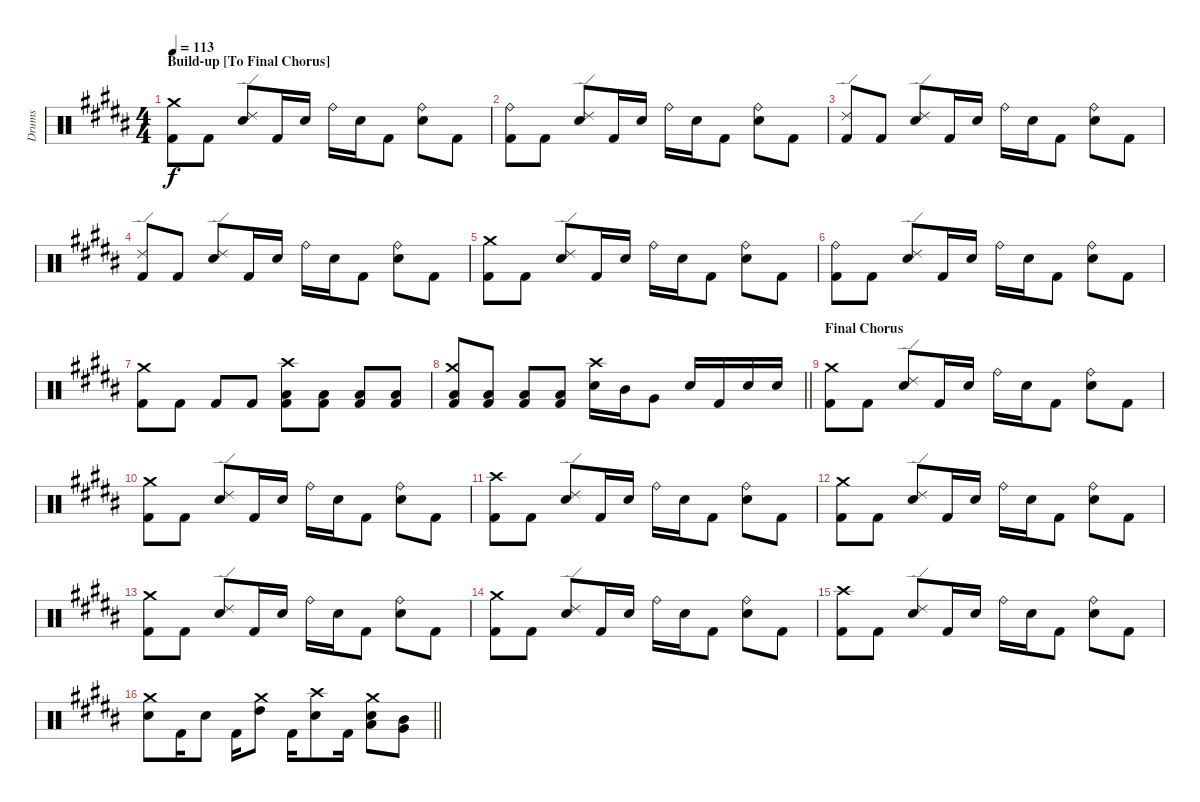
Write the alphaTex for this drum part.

\track ("Drums" "Drums") {instrument percussion}
\staff {score}
\articulation defaults
\ts (4 4)
\section ("" "Build-up [To Final Chorus]")
\tempo 113
\clef neutral
\ks b
("Kick (hit) 2" "Crash medium (hit)").8{dy f} "Kick (hit) 2".8 ("Electric Snare (hit)" "Ride (edge) 2").8 "Kick (hit) 2".16 "Electric Snare (hit)".16 "Ride (bell)".16 "Electric Snare (hit)".16 "Kick (hit) 2".8 ("Electric Snare (hit)" "Ride (bell)").8 "Kick (hit) 2".8 |
("Kick (hit) 2" "Ride (bell)").8 "Kick (hit) 2".8 ("Electric Snare (hit)" "Ride (edge) 2").8 "Kick (hit) 2".16 "Electric Snare (hit)".16 "Ride (bell)".16 "Electric Snare (hit)".16 "Kick (hit) 2".8 ("Electric Snare (hit)" "Ride (bell)").8 "Kick (hit) 2".8 |
("Kick (hit) 2" "Ride (edge) 2").8 "Kick (hit) 2".8 ("Electric Snare (hit)" "Ride (edge) 2").8 "Kick (hit) 2".16 "Electric Snare (hit)".16 "Ride (bell)".16 "Electric Snare (hit)".16 "Kick (hit) 2".8 ("Electric Snare (hit)" "Ride (bell)").8 "Kick (hit) 2".8 |
("Kick (hit) 2" "Ride (edge) 2").8 "Kick (hit) 2".8 ("Electric Snare (hit)" "Ride (edge) 2").8 "Kick (hit) 2".16 "Electric Snare (hit)".16 "Ride (bell)".16 "Electric Snare (hit)".16 "Kick (hit) 2".8 ("Electric Snare (hit)" "Ride (bell)").8 "Kick (hit) 2".8 |
("Kick (hit) 2" "Crash medium (hit)").8 "Kick (hit) 2".8 ("Electric Snare (hit)" "Ride (edge) 2").8 "Kick (hit) 2".16 "Electric Snare (hit)".16 "Ride (bell)".16 "Electric Snare (hit)".16 "Kick (hit) 2".8 ("Electric Snare (hit)" "Ride (bell)").8 "Kick (hit) 2".8 |
("Kick (hit) 2" "Ride (bell)").8 "Kick (hit) 2".8 ("Electric Snare (hit)" "Ride (edge) 2").8 "Kick (hit) 2".16 "Electric Snare (hit)".16 "Ride (bell)".16 "Electric Snare (hit)".16 "Kick (hit) 2".8 ("Electric Snare (hit)" "Ride (bell)").8 "Kick (hit) 2".8 |
("Kick (hit) 2" "Crash medium (hit)").8 "Kick (hit) 2".8 "Kick (hit) 2".8 "Kick (hit) 2".8 ("Kick (hit) 2" "Low Floor Tom (hit)" "Crash high (hit)").8 ("Kick (hit) 2" "Low Floor Tom (hit)").8 ("Kick (hit) 2" "Low Floor Tom (hit)").8 ("Kick (hit) 2" "Low Floor Tom (hit)").8 |
\barLineRight lightlight
("Kick (hit) 2" "Low Floor Tom (hit)" "Crash medium (hit)").8 ("Kick (hit) 2" "Low Floor Tom (hit)").8 ("Kick (hit) 2" "Low Floor Tom (hit)").8 ("Kick (hit) 2" "Low Floor Tom (hit)").8 ("Electric Snare (hit)" "Crash high (hit)").16 "Mid Tom (hit)".16 "Very Low Tom (hit)".8 "Electric Snare (hit)".16 "Kick (hit) 2".16 "Electric Snare (hit)".16 "Electric Snare (hit)".16 |
\section ("" "Final Chorus")
("Kick (hit) 2" "Crash medium (hit)").8 "Kick (hit) 2".8 ("Electric Snare (hit)" "Ride (edge) 2").8 "Kick (hit) 2".16 "Electric Snare (hit)".16 "Ride (bell)".16 "Electric Snare (hit)".16 "Kick (hit) 2".8 ("Electric Snare (hit)" "Ride (bell)").8 "Kick (hit) 2".8 |
("Kick (hit) 2" "Crash medium (hit)").8 "Kick (hit) 2".8 ("Electric Snare (hit)" "Ride (edge) 2").8 "Kick (hit) 2".16 "Electric Snare (hit)".16 "Ride (bell)".16 "Electric Snare (hit)".16 "Kick (hit) 2".8 ("Electric Snare (hit)" "Ride (bell)").8 "Kick (hit) 2".8 |
("Kick (hit) 2" "Crash high (hit)").8 "Kick (hit) 2".8 ("Electric Snare (hit)" "Ride (edge) 2").8 "Kick (hit) 2".16 "Electric Snare (hit)".16 "Ride (bell)".16 "Electric Snare (hit)".16 "Kick (hit) 2".8 ("Electric Snare (hit)" "Ride (bell)").8 "Kick (hit) 2".8 |
("Kick (hit) 2" "Crash medium (hit)").8 "Kick (hit) 2".8 ("Electric Snare (hit)" "Ride (edge) 2").8 "Kick (hit) 2".16 "Electric Snare (hit)".16 "Ride (bell)".16 "Electric Snare (hit)".16 "Kick (hit) 2".8 ("Electric Snare (hit)" "Ride (bell)").8 "Kick (hit) 2".8 |
("Kick (hit) 2" "Crash medium (hit)").8 "Kick (hit) 2".8 ("Electric Snare (hit)" "Ride (edge) 2").8 "Kick (hit) 2".16 "Electric Snare (hit)".16 "Ride (bell)".16 "Electric Snare (hit)".16 "Kick (hit) 2".8 ("Electric Snare (hit)" "Ride (bell)").8 "Kick (hit) 2".8 |
("Kick (hit) 2" "Crash medium (hit)").8 "Kick (hit) 2".8 ("Electric Snare (hit)" "Ride (edge) 2").8 "Kick (hit) 2".16 "Electric Snare (hit)".16 "Ride (bell)".16 "Electric Snare (hit)".16 "Kick (hit) 2".8 ("Electric Snare (hit)" "Ride (bell)").8 "Kick (hit) 2".8 |
("Kick (hit) 2" "Crash high (hit)").8 "Kick (hit) 2".8 ("Electric Snare (hit)" "Ride (edge) 2").8 "Kick (hit) 2".16 "Electric Snare (hit)".16 "Ride (bell)".16 "Electric Snare (hit)".16 "Kick (hit) 2".8 ("Electric Snare (hit)" "Ride (bell)").8 "Kick (hit) 2".8 |
\barLineRight lightlight
("Electric Snare (hit)" "Crash medium (hit)").8 "Kick (hit) 2".16 "Electric Snare (hit)".8 "Kick (hit) 2".16 ("High Tom (hit)" "Crash medium (hit)").8 "Kick (hit) 2".16 ("Electric Snare (hit)" "Crash high (hit)").8 "Kick (hit) 2".16 ("Electric Snare (hit)" "Low Tom (hit)" "Crash medium (hit)").8 ("Very Low Tom (hit)" "Mid Tom (hit)").8
